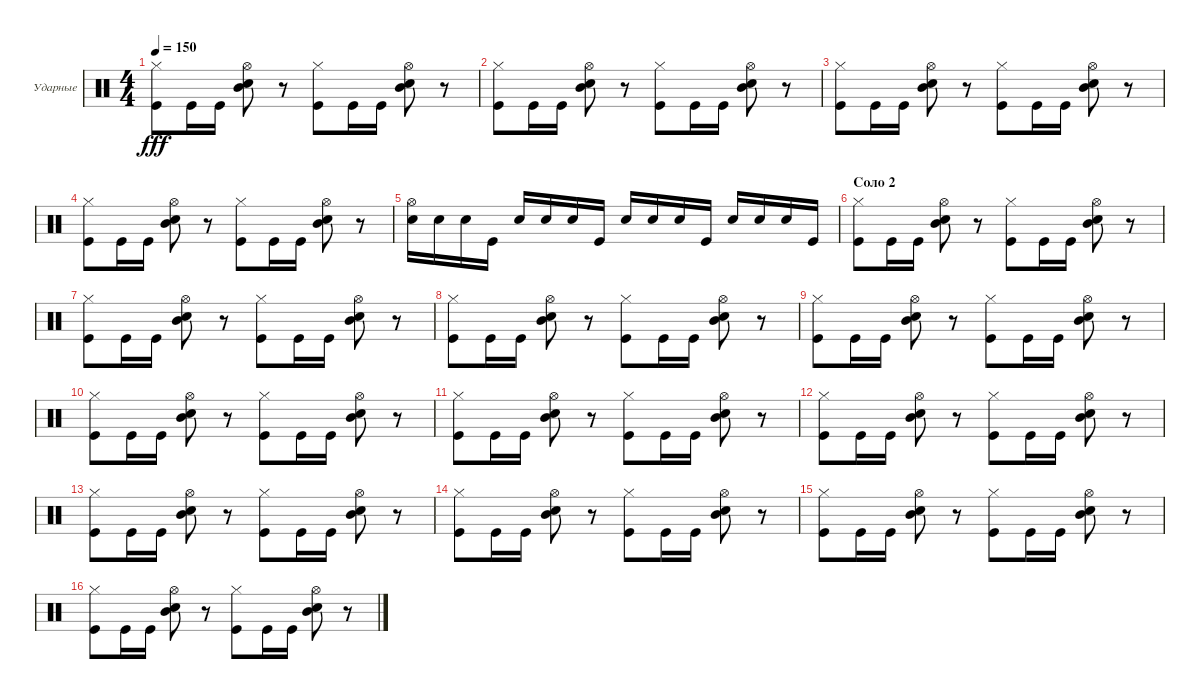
\bracketExtendMode groupsimilarinstruments
\firstSystemTrackNameOrientation horizontal
\otherSystemsTrackNameOrientation horizontal
\track ("Максим Удалов" "Ударные") {instrument percussion}
\staff {score}
\articulation defaults
\ts (4 4)
\tempo 150
\clef neutral
\ks c
("Hi-Hat (closed)" "Kick (hit)").8{dy fff} "Kick (hit)".16 "Kick (hit)".16 ("Hi-Hat (open)" "Mid Tom (hit)" "Snare (hit) 2").8 r.8 ("Hi-Hat (closed)" "Kick (hit)").8 "Kick (hit)".16 "Kick (hit)".16 ("Hi-Hat (open)" "Mid Tom (hit)" "Snare (hit) 2").8 r.8 |
("Hi-Hat (closed)" "Kick (hit)").8 "Kick (hit)".16 "Kick (hit)".16 ("Hi-Hat (open)" "Mid Tom (hit)" "Snare (hit) 2").8 r.8 ("Hi-Hat (closed)" "Kick (hit)").8 "Kick (hit)".16 "Kick (hit)".16 ("Hi-Hat (open)" "Mid Tom (hit)" "Snare (hit) 2").8 r.8 |
("Hi-Hat (closed)" "Kick (hit)").8 "Kick (hit)".16 "Kick (hit)".16 ("Hi-Hat (open)" "Mid Tom (hit)" "Snare (hit) 2").8 r.8 ("Hi-Hat (closed)" "Kick (hit)").8 "Kick (hit)".16 "Kick (hit)".16 ("Hi-Hat (open)" "Mid Tom (hit)" "Snare (hit) 2").8 r.8 |
("Hi-Hat (closed)" "Kick (hit)").8 "Kick (hit)".16 "Kick (hit)".16 ("Hi-Hat (open)" "Mid Tom (hit)" "Snare (hit) 2").8 r.8 ("Hi-Hat (closed)" "Kick (hit)").8 "Kick (hit)".16 "Kick (hit)".16 ("Hi-Hat (open)" "Mid Tom (hit)" "Snare (hit) 2").8 r.8 |
("Hi-Hat (open)" "Snare (hit) 2").16 "Snare (hit) 2".16 "Snare (hit) 2".16 "Kick (hit)".16 "Snare (hit) 2".16 "Snare (hit) 2".16 "Snare (hit) 2".16 "Kick (hit)".16 "Snare (hit) 2".16 "Snare (hit) 2".16 "Snare (hit) 2".16 "Kick (hit)".16 "Snare (hit) 2".16 "Snare (hit) 2".16 "Snare (hit) 2".16 "Kick (hit)".16 |
\section ("" "Соло 2")
("Hi-Hat (closed)" "Kick (hit)").8 "Kick (hit)".16 "Kick (hit)".16 ("Hi-Hat (open)" "Mid Tom (hit)" "Snare (hit) 2").8 r.8 ("Hi-Hat (closed)" "Kick (hit)").8 "Kick (hit)".16 "Kick (hit)".16 ("Hi-Hat (open)" "Mid Tom (hit)" "Snare (hit) 2").8 r.8 |
("Hi-Hat (closed)" "Kick (hit)").8 "Kick (hit)".16 "Kick (hit)".16 ("Hi-Hat (open)" "Mid Tom (hit)" "Snare (hit) 2").8 r.8 ("Hi-Hat (closed)" "Kick (hit)").8 "Kick (hit)".16 "Kick (hit)".16 ("Hi-Hat (open)" "Mid Tom (hit)" "Snare (hit) 2").8 r.8 |
("Hi-Hat (closed)" "Kick (hit)").8 "Kick (hit)".16 "Kick (hit)".16 ("Hi-Hat (open)" "Mid Tom (hit)" "Snare (hit) 2").8 r.8 ("Hi-Hat (closed)" "Kick (hit)").8 "Kick (hit)".16 "Kick (hit)".16 ("Hi-Hat (open)" "Mid Tom (hit)" "Snare (hit) 2").8 r.8 |
("Hi-Hat (closed)" "Kick (hit)").8 "Kick (hit)".16 "Kick (hit)".16 ("Hi-Hat (open)" "Mid Tom (hit)" "Snare (hit) 2").8 r.8 ("Hi-Hat (closed)" "Kick (hit)").8 "Kick (hit)".16 "Kick (hit)".16 ("Hi-Hat (open)" "Mid Tom (hit)" "Snare (hit) 2").8 r.8 |
("Hi-Hat (closed)" "Kick (hit)").8 "Kick (hit)".16 "Kick (hit)".16 ("Hi-Hat (open)" "Mid Tom (hit)" "Snare (hit) 2").8 r.8 ("Hi-Hat (closed)" "Kick (hit)").8 "Kick (hit)".16 "Kick (hit)".16 ("Hi-Hat (open)" "Mid Tom (hit)" "Snare (hit) 2").8 r.8 |
("Hi-Hat (closed)" "Kick (hit)").8 "Kick (hit)".16 "Kick (hit)".16 ("Hi-Hat (open)" "Mid Tom (hit)" "Snare (hit) 2").8 r.8 ("Hi-Hat (closed)" "Kick (hit)").8 "Kick (hit)".16 "Kick (hit)".16 ("Hi-Hat (open)" "Mid Tom (hit)" "Snare (hit) 2").8 r.8 |
("Hi-Hat (closed)" "Kick (hit)").8 "Kick (hit)".16 "Kick (hit)".16 ("Hi-Hat (open)" "Mid Tom (hit)" "Snare (hit) 2").8 r.8 ("Hi-Hat (closed)" "Kick (hit)").8 "Kick (hit)".16 "Kick (hit)".16 ("Hi-Hat (open)" "Mid Tom (hit)" "Snare (hit) 2").8 r.8 |
("Hi-Hat (closed)" "Kick (hit)").8 "Kick (hit)".16 "Kick (hit)".16 ("Hi-Hat (open)" "Mid Tom (hit)" "Snare (hit) 2").8 r.8 ("Hi-Hat (closed)" "Kick (hit)").8 "Kick (hit)".16 "Kick (hit)".16 ("Hi-Hat (open)" "Mid Tom (hit)" "Snare (hit) 2").8 r.8 |
("Hi-Hat (closed)" "Kick (hit)").8 "Kick (hit)".16 "Kick (hit)".16 ("Hi-Hat (open)" "Mid Tom (hit)" "Snare (hit) 2").8 r.8 ("Hi-Hat (closed)" "Kick (hit)").8 "Kick (hit)".16 "Kick (hit)".16 ("Hi-Hat (open)" "Mid Tom (hit)" "Snare (hit) 2").8 r.8 |
("Hi-Hat (closed)" "Kick (hit)").8 "Kick (hit)".16 "Kick (hit)".16 ("Hi-Hat (open)" "Mid Tom (hit)" "Snare (hit) 2").8 r.8 ("Hi-Hat (closed)" "Kick (hit)").8 "Kick (hit)".16 "Kick (hit)".16 ("Hi-Hat (open)" "Mid Tom (hit)" "Snare (hit) 2").8 r.8 |
("Hi-Hat (closed)" "Kick (hit)").8 "Kick (hit)".16 "Kick (hit)".16 ("Hi-Hat (open)" "Mid Tom (hit)" "Snare (hit) 2").8 r.8 ("Hi-Hat (closed)" "Kick (hit)").8 "Kick (hit)".16 "Kick (hit)".16 ("Hi-Hat (open)" "Mid Tom (hit)" "Snare (hit) 2").8 r.8
